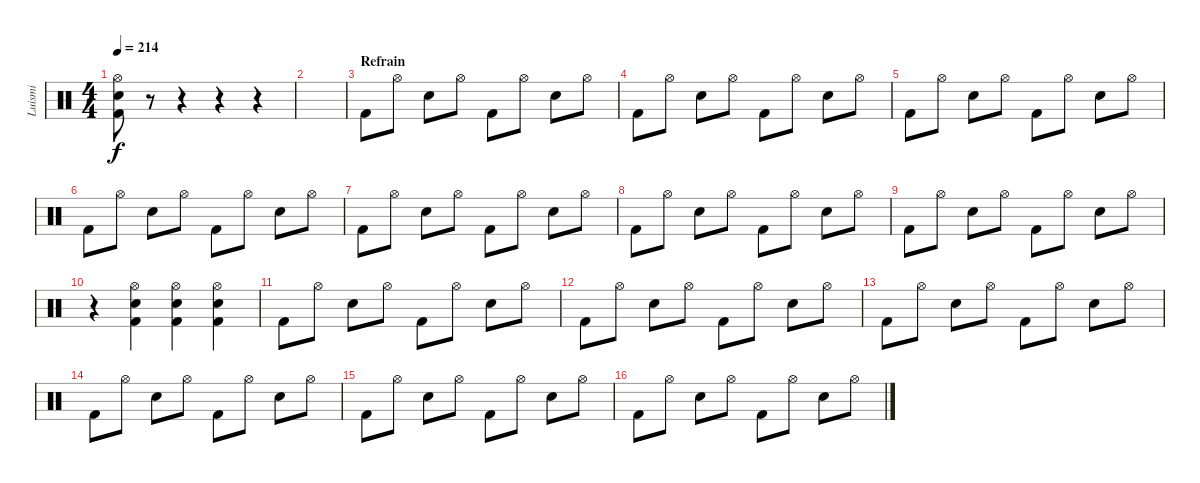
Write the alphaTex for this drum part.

\track ("Luismi" "Luismi") {instrument percussion}
\staff {score}
\articulation defaults
\ts (4 4)
\tempo 214
\clef neutral
\ks c
("Hi-Hat (open)" "Snare (hit) 2" "Kick (hit) 2").8{dy f} r.8 r.4 r.4 r.4 |
|
\section ("" "Refrain")
"Kick (hit) 2".8 "Hi-Hat (open)".8 "Snare (hit) 2".8 "Hi-Hat (open)".8 "Kick (hit) 2".8 "Hi-Hat (open)".8 "Snare (hit) 2".8 "Hi-Hat (open)".8 |
"Kick (hit) 2".8 "Hi-Hat (open)".8 "Snare (hit) 2".8 "Hi-Hat (open)".8 "Kick (hit) 2".8 "Hi-Hat (open)".8 "Snare (hit) 2".8 "Hi-Hat (open)".8 |
"Kick (hit) 2".8 "Hi-Hat (open)".8 "Snare (hit) 2".8 "Hi-Hat (open)".8 "Kick (hit) 2".8 "Hi-Hat (open)".8 "Snare (hit) 2".8 "Hi-Hat (open)".8 |
"Kick (hit) 2".8 "Hi-Hat (open)".8 "Snare (hit) 2".8 "Hi-Hat (open)".8 "Kick (hit) 2".8 "Hi-Hat (open)".8 "Snare (hit) 2".8 "Hi-Hat (open)".8 |
"Kick (hit) 2".8 "Hi-Hat (open)".8 "Snare (hit) 2".8 "Hi-Hat (open)".8 "Kick (hit) 2".8 "Hi-Hat (open)".8 "Snare (hit) 2".8 "Hi-Hat (open)".8 |
"Kick (hit) 2".8 "Hi-Hat (open)".8 "Snare (hit) 2".8 "Hi-Hat (open)".8 "Kick (hit) 2".8 "Hi-Hat (open)".8 "Snare (hit) 2".8 "Hi-Hat (open)".8 |
"Kick (hit) 2".8 "Hi-Hat (open)".8 "Snare (hit) 2".8 "Hi-Hat (open)".8 "Kick (hit) 2".8 "Hi-Hat (open)".8 "Snare (hit) 2".8 "Hi-Hat (open)".8 |
r.4 ("Hi-Hat (open)" "Snare (hit) 2" "Kick (hit) 2").4 ("Hi-Hat (open)" "Snare (hit) 2" "Kick (hit) 2").4 ("Hi-Hat (open)" "Snare (hit) 2" "Kick (hit) 2").4 |
"Kick (hit) 2".8 "Hi-Hat (open)".8 "Snare (hit) 2".8 "Hi-Hat (open)".8 "Kick (hit) 2".8 "Hi-Hat (open)".8 "Snare (hit) 2".8 "Hi-Hat (open)".8 |
"Kick (hit) 2".8 "Hi-Hat (open)".8 "Snare (hit) 2".8 "Hi-Hat (open)".8 "Kick (hit) 2".8 "Hi-Hat (open)".8 "Snare (hit) 2".8 "Hi-Hat (open)".8 |
"Kick (hit) 2".8 "Hi-Hat (open)".8 "Snare (hit) 2".8 "Hi-Hat (open)".8 "Kick (hit) 2".8 "Hi-Hat (open)".8 "Snare (hit) 2".8 "Hi-Hat (open)".8 |
"Kick (hit) 2".8 "Hi-Hat (open)".8 "Snare (hit) 2".8 "Hi-Hat (open)".8 "Kick (hit) 2".8 "Hi-Hat (open)".8 "Snare (hit) 2".8 "Hi-Hat (open)".8 |
"Kick (hit) 2".8 "Hi-Hat (open)".8 "Snare (hit) 2".8 "Hi-Hat (open)".8 "Kick (hit) 2".8 "Hi-Hat (open)".8 "Snare (hit) 2".8 "Hi-Hat (open)".8 |
"Kick (hit) 2".8 "Hi-Hat (open)".8 "Snare (hit) 2".8 "Hi-Hat (open)".8 "Kick (hit) 2".8 "Hi-Hat (open)".8 "Snare (hit) 2".8 "Hi-Hat (open)".8
